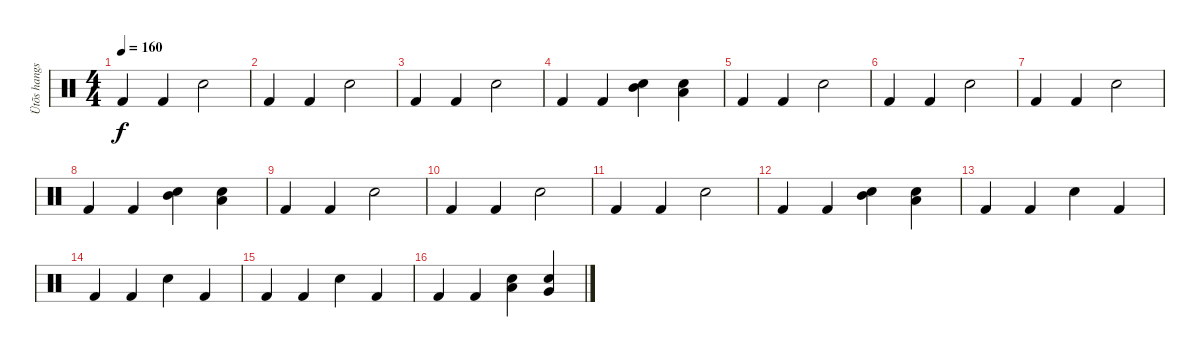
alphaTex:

\track ("Ütõs hangszer" "Ütõs hangs") {instrument percussion}
\staff {score}
\articulation defaults
\ts (4 4)
\tempo 160
\clef neutral
\ks c "Kick (hit) 2".4{dy f} "Kick (hit) 2".4 "Electric Snare (hit)".2
|
"Kick (hit) 2".4 "Kick (hit) 2".4 "Electric Snare (hit)".2 |
"Kick (hit) 2".4 "Kick (hit) 2".4 "Electric Snare (hit)".2 |
"Kick (hit) 2".4 "Kick (hit) 2".4 ("Electric Snare (hit)" "Mid Tom (hit)").4 ("Electric Snare (hit)" "Low Tom (hit)").4 |
"Kick (hit) 2".4 "Kick (hit) 2".4 "Electric Snare (hit)".2 |
"Kick (hit) 2".4 "Kick (hit) 2".4 "Electric Snare (hit)".2 |
"Kick (hit) 2".4 "Kick (hit) 2".4 "Electric Snare (hit)".2 |
"Kick (hit) 2".4 "Kick (hit) 2".4 ("Electric Snare (hit)" "Mid Tom (hit)").4 ("Electric Snare (hit)" "Low Tom (hit)").4 |
"Kick (hit) 2".4 "Kick (hit) 2".4 "Electric Snare (hit)".2 |
"Kick (hit) 2".4 "Kick (hit) 2".4 "Electric Snare (hit)".2 |
"Kick (hit) 2".4 "Kick (hit) 2".4 "Electric Snare (hit)".2 |
"Kick (hit) 2".4 "Kick (hit) 2".4 ("Electric Snare (hit)" "Mid Tom (hit)").4 ("Electric Snare (hit)" "Low Tom (hit)").4 |
"Kick (hit) 2".4 "Kick (hit) 2".4 "Electric Snare (hit)".4 "Kick (hit) 2".4 |
"Kick (hit) 2".4 "Kick (hit) 2".4 "Electric Snare (hit)".4 "Kick (hit) 2".4 |
"Kick (hit) 2".4 "Kick (hit) 2".4 "Electric Snare (hit)".4 "Kick (hit) 2".4 |
"Kick (hit) 2".4 "Kick (hit) 2".4 ("Electric Snare (hit)" "Low Floor Tom (hit)").4 ("Electric Snare (hit)" "Very Low Tom (hit)").4
